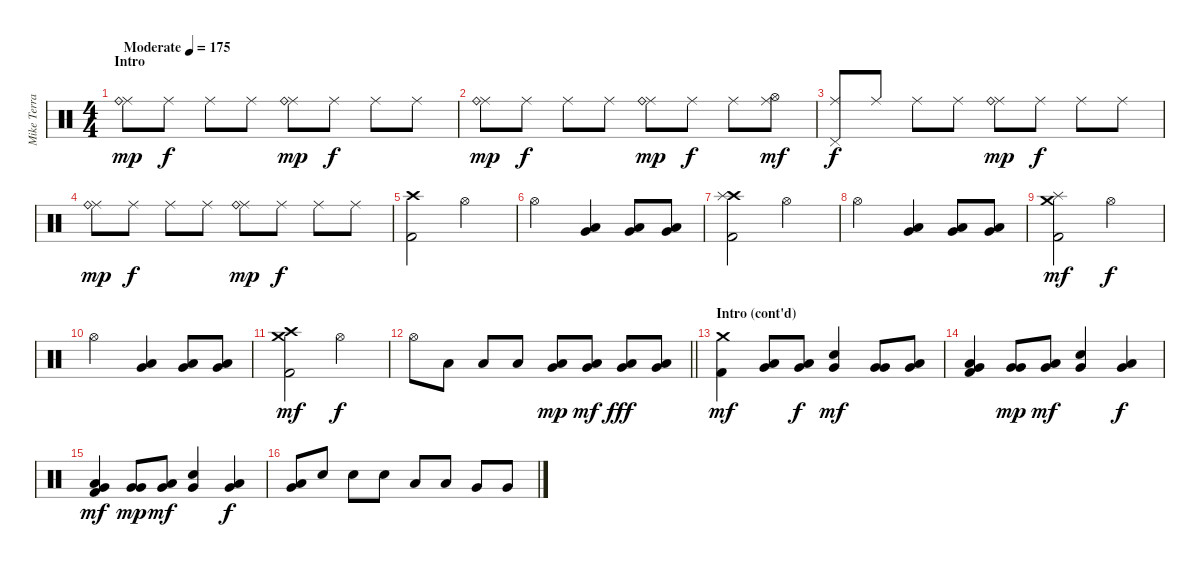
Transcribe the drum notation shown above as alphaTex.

\track ("Mike Terrana" "Mike Terra") {instrument percussion}
\staff {score}
\articulation defaults
\ts (4 4)
\section ("" "Intro")
\tempo (175 "Moderate")
\clef neutral
\ks c
("Ride (middle)" "Ride (bell)").8{dy mp volume 13} "Ride (middle)".8{dy f} "Ride (middle)".8 "Ride (middle)".8 ("Ride (middle)" "Ride (bell)").8{dy mp} "Ride (middle)".8{dy f} "Ride (middle)".8 "Ride (middle)".8 |
("Ride (middle)" "Ride (bell)").8{dy mp} "Ride (middle)".8{dy f} "Ride (middle)".8 "Ride (middle)".8 ("Ride (middle)" "Ride (bell)").8{dy mp} "Ride (middle)".8{dy f} "Ride (middle)".8 ("Ride (middle)" "Hi-Hat (open)").8{dy mf} |
("Ride (middle)" "Pedal Hi-Hat (hit)").8{dy f} "Ride (middle)".8 "Ride (middle)".8 "Ride (middle)".8 ("Ride (middle)" "Ride (bell)").8{dy mp} "Ride (middle)".8{dy f} "Ride (middle)".8 "Ride (middle)".8 |
("Ride (middle)" "Ride (bell)").8{dy mp} "Ride (middle)".8{dy f} "Ride (middle)".8 "Ride (middle)".8 ("Ride (middle)" "Ride (bell)").8{dy mp} "Ride (middle)".8{dy f} "Ride (middle)".8 "Ride (middle)".8 |
("Crash high (hit)" "Kick (hit) 2").2{volume 16} "Hi-Hat (open)".2 |
"Hi-Hat (open)".2 ("Low Tom (hit)" "Very Low Tom (hit)").4 ("Low Tom (hit)" "Very Low Tom (hit)").8 ("Low Tom (hit)" "Very Low Tom (hit)").8 |
("Crash high (hit)" "Splash (hit)" "Kick (hit) 2").2 "Hi-Hat (open)".2 |
"Hi-Hat (open)".2 ("Low Tom (hit)" "Very Low Tom (hit)").4 ("Low Tom (hit)" "Very Low Tom (hit)").8 ("Low Tom (hit)" "Very Low Tom (hit)").8 |
("Splash (hit)" "Crash medium (hit)" "Kick (hit) 2").2{dy mf} "Hi-Hat (open)".2{dy f} |
"Hi-Hat (open)".2 ("Low Tom (hit)" "Very Low Tom (hit)").4 ("Low Tom (hit)" "Very Low Tom (hit)").8 ("Low Tom (hit)" "Very Low Tom (hit)").8 |
("Crash high (hit)" "Crash medium (hit)" "Kick (hit) 2").2{dy mf} "Hi-Hat (open)".2{dy f} |
\barLineRight lightlight "Hi-Hat (open)".8 "Low Tom (hit)".8 "Low Tom (hit)".8 "Low Tom (hit)".8
("Low Tom (hit)" "Very Low Tom (hit)").8{dy mp} ("Low Tom (hit)" "Very Low Tom (hit)").8{dy mf} ("Low Tom (hit)" "Very Low Tom (hit)").8{dy fff} ("Low Tom (hit)" "Very Low Tom (hit)").8 |
\section ("" "Intro (cont'd)")
("Crash medium (hit)" "Kick (hit) 2").4{dy mf} ("Low Tom (hit)" "Very Low Tom (hit)").8 ("Low Tom (hit)" "Very Low Tom (hit)").8{dy f} ("Snare (hit) 2" "Very Low Tom (hit)").4{dy mf} ("Very Low Tom (hit)" "Very Low Tom (hit)").8 ("Low Tom (hit)" "Very Low Tom (hit)").8 |
("Low Tom (hit)" "Very Low Tom (hit)" "Kick (hit) 2").4 ("Very Low Tom (hit)" "Very Low Tom (hit)").8{dy mp} ("Low Tom (hit)" "Very Low Tom (hit)").8{dy mf} ("Snare (hit) 2" "Very Low Tom (hit)").4 ("Low Tom (hit)" "Very Low Tom (hit)").4{dy f} |
("Low Tom (hit)" "Very Low Tom (hit)" "Kick (hit) 2").4{dy mf} ("Very Low Tom (hit)" "Very Low Tom (hit)").8{dy mp} ("Low Tom (hit)" "Very Low Tom (hit)").8{dy mf} ("Snare (hit) 2" "Very Low Tom (hit)").4 ("Low Tom (hit)" "Very Low Tom (hit)").4{dy f} |
("Low Tom (hit)" "Very Low Tom (hit)").8 "Snare (hit) 2".8 "Snare (hit) 2".8 "Snare (hit) 2".8 "Low Tom (hit)".8 "Low Tom (hit)".8 "Very Low Tom (hit)".8 "Very Low Tom (hit)".8
